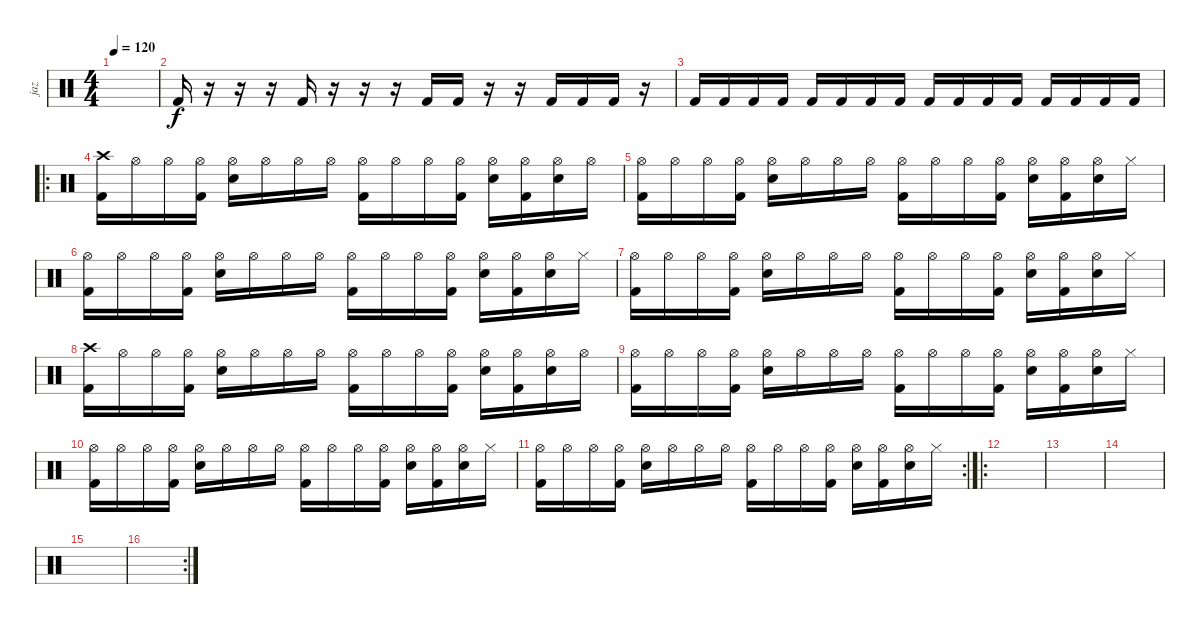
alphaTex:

\track ("jaz" "jaz") {instrument percussion}
\staff {score}
\articulation defaults
\ts (4 4)
\tempo 120
\clef neutral
\ks c
|
"Kick (hit) 2".16 r.16 r.16 r.16 "Kick (hit) 2".16 r.16 r.16 r.16 "Kick (hit) 2".16 "Kick (hit) 2".16 r.16 r.16 "Kick (hit) 2".16 "Kick (hit) 2".16 "Kick (hit) 2".16 r.16 |
"Kick (hit) 2".16 "Kick (hit) 2".16 "Kick (hit) 2".16 "Kick (hit) 2".16 "Kick (hit) 2".16 "Kick (hit) 2".16 "Kick (hit) 2".16 "Kick (hit) 2".16 "Kick (hit) 2".16 "Kick (hit) 2".16 "Kick (hit) 2".16 "Kick (hit) 2".16 "Kick (hit) 2".16 "Kick (hit) 2".16 "Kick (hit) 2".16 "Kick (hit) 2".16 |
\ro
("Crash high (hit)" "Kick (hit) 2").16 "Hi-Hat (open)".16 "Hi-Hat (open)".16 ("Hi-Hat (open)" "Kick (hit) 2").16 ("Hi-Hat (open)" "Electric Snare (hit)").16 "Hi-Hat (open)".16 "Hi-Hat (open)".16 "Hi-Hat (open)".16 ("Hi-Hat (open)" "Kick (hit) 2").16 "Hi-Hat (open)".16 "Hi-Hat (open)".16 ("Hi-Hat (open)" "Kick (hit) 2").16 ("Hi-Hat (open)" "Electric Snare (hit)").16 ("Hi-Hat (open)" "Kick (hit) 2").16 ("Hi-Hat (open)" "Electric Snare (hit)").16 "Hi-Hat (open)".16 |
("Hi-Hat (open)" "Kick (hit) 2").16 "Hi-Hat (open)".16 "Hi-Hat (open)".16 ("Hi-Hat (open)" "Kick (hit) 2").16 ("Hi-Hat (open)" "Electric Snare (hit)").16 "Hi-Hat (open)".16 "Hi-Hat (open)".16 "Hi-Hat (open)".16 ("Hi-Hat (open)" "Kick (hit) 2").16 "Hi-Hat (open)".16 "Hi-Hat (open)".16 ("Hi-Hat (open)" "Kick (hit) 2").16 ("Hi-Hat (open)" "Electric Snare (hit)").16 ("Hi-Hat (open)" "Kick (hit) 2").16 ("Hi-Hat (open)" "Electric Snare (hit)").16 "Hi-Hat (closed)".16 |
("Hi-Hat (open)" "Kick (hit) 2").16 "Hi-Hat (open)".16 "Hi-Hat (open)".16 ("Hi-Hat (open)" "Kick (hit) 2").16 ("Hi-Hat (open)" "Electric Snare (hit)").16 "Hi-Hat (open)".16 "Hi-Hat (open)".16 "Hi-Hat (open)".16 ("Hi-Hat (open)" "Kick (hit) 2").16 "Hi-Hat (open)".16 "Hi-Hat (open)".16 ("Hi-Hat (open)" "Kick (hit) 2").16 ("Hi-Hat (open)" "Electric Snare (hit)").16 ("Hi-Hat (open)" "Kick (hit) 2").16 ("Hi-Hat (open)" "Electric Snare (hit)").16 "Hi-Hat (closed)".16 |
("Hi-Hat (open)" "Kick (hit) 2").16 "Hi-Hat (open)".16 "Hi-Hat (open)".16 ("Hi-Hat (open)" "Kick (hit) 2").16 ("Hi-Hat (open)" "Electric Snare (hit)").16 "Hi-Hat (open)".16 "Hi-Hat (open)".16 "Hi-Hat (open)".16 ("Hi-Hat (open)" "Kick (hit) 2").16 "Hi-Hat (open)".16 "Hi-Hat (open)".16 ("Hi-Hat (open)" "Kick (hit) 2").16 ("Hi-Hat (open)" "Electric Snare (hit)").16 ("Hi-Hat (open)" "Kick (hit) 2").16 ("Hi-Hat (open)" "Electric Snare (hit)").16 "Hi-Hat (closed)".16 |
("Crash high (hit)" "Kick (hit) 2").16 "Hi-Hat (open)".16 "Hi-Hat (open)".16 ("Hi-Hat (open)" "Kick (hit) 2").16 ("Hi-Hat (open)" "Electric Snare (hit)").16 "Hi-Hat (open)".16 "Hi-Hat (open)".16 "Hi-Hat (open)".16 ("Hi-Hat (open)" "Kick (hit) 2").16 "Hi-Hat (open)".16 "Hi-Hat (open)".16 ("Hi-Hat (open)" "Kick (hit) 2").16 ("Hi-Hat (open)" "Electric Snare (hit)").16 ("Hi-Hat (open)" "Kick (hit) 2").16 ("Hi-Hat (open)" "Electric Snare (hit)").16 "Hi-Hat (open)".16 |
("Hi-Hat (open)" "Kick (hit) 2").16 "Hi-Hat (open)".16 "Hi-Hat (open)".16 ("Hi-Hat (open)" "Kick (hit) 2").16 ("Hi-Hat (open)" "Electric Snare (hit)").16 "Hi-Hat (open)".16 "Hi-Hat (open)".16 "Hi-Hat (open)".16 ("Hi-Hat (open)" "Kick (hit) 2").16 "Hi-Hat (open)".16 "Hi-Hat (open)".16 ("Hi-Hat (open)" "Kick (hit) 2").16 ("Hi-Hat (open)" "Electric Snare (hit)").16 ("Hi-Hat (open)" "Kick (hit) 2").16 ("Hi-Hat (open)" "Electric Snare (hit)").16 "Hi-Hat (closed)".16 |
("Hi-Hat (open)" "Kick (hit) 2").16 "Hi-Hat (open)".16 "Hi-Hat (open)".16 ("Hi-Hat (open)" "Kick (hit) 2").16 ("Hi-Hat (open)" "Electric Snare (hit)").16 "Hi-Hat (open)".16 "Hi-Hat (open)".16 "Hi-Hat (open)".16 ("Hi-Hat (open)" "Kick (hit) 2").16 "Hi-Hat (open)".16 "Hi-Hat (open)".16 ("Hi-Hat (open)" "Kick (hit) 2").16 ("Hi-Hat (open)" "Electric Snare (hit)").16 ("Hi-Hat (open)" "Kick (hit) 2").16 ("Hi-Hat (open)" "Electric Snare (hit)").16 "Hi-Hat (closed)".16 |
\rc 2
("Hi-Hat (open)" "Kick (hit) 2").16 "Hi-Hat (open)".16 "Hi-Hat (open)".16 ("Hi-Hat (open)" "Kick (hit) 2").16 ("Hi-Hat (open)" "Electric Snare (hit)").16 "Hi-Hat (open)".16 "Hi-Hat (open)".16 "Hi-Hat (open)".16 ("Hi-Hat (open)" "Kick (hit) 2").16 "Hi-Hat (open)".16 "Hi-Hat (open)".16 ("Hi-Hat (open)" "Kick (hit) 2").16 ("Hi-Hat (open)" "Electric Snare (hit)").16 ("Hi-Hat (open)" "Kick (hit) 2").16 ("Hi-Hat (open)" "Electric Snare (hit)").16 "Hi-Hat (closed)".16 |
\ro
|
|
|
|
\rc 2
